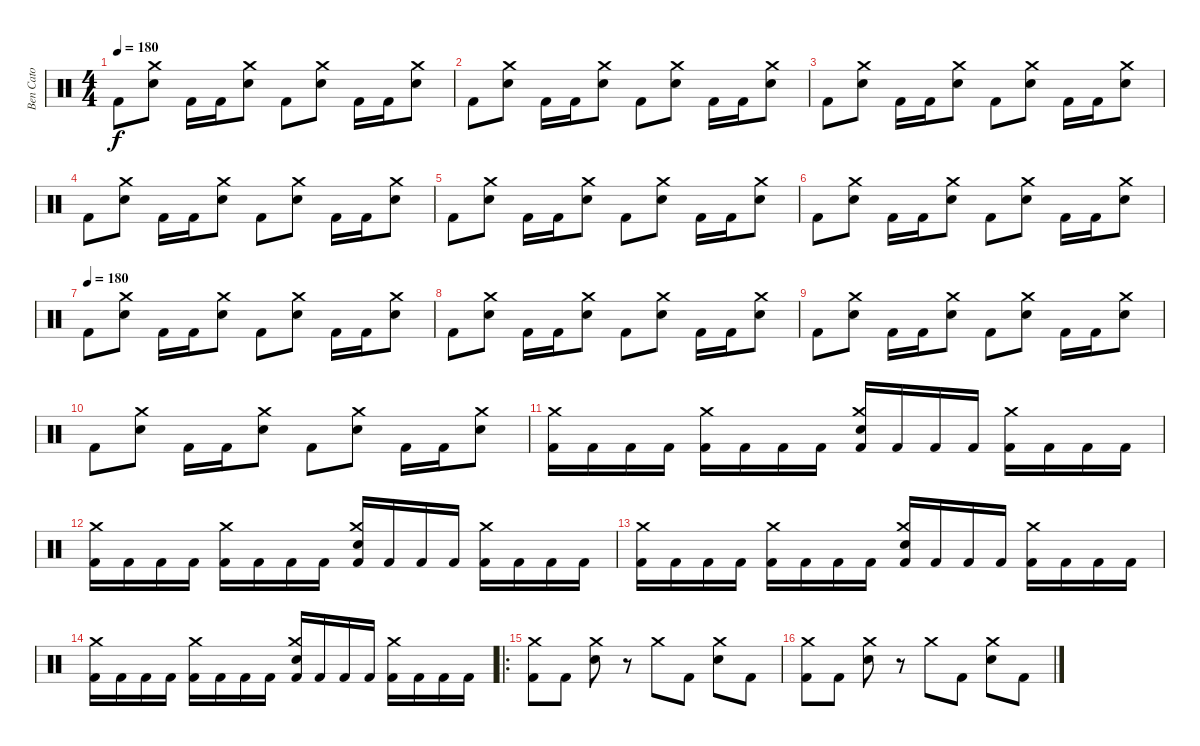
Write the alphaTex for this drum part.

\track ("Ben Cato" "Ben Cato") {instrument percussion}
\staff {score}
\articulation defaults
\ts (4 4)
\tempo 180
\clef neutral
\ks c "Kick (hit) 2".8{dy f}
("Crash medium (hit)" "Electric Snare (hit)").8 "Kick (hit) 2".16 "Kick (hit) 2".16 ("Crash medium (hit)" "Electric Snare (hit)").8 "Kick (hit) 2".8 ("Crash medium (hit)" "Electric Snare (hit)").8 "Kick (hit) 2".16 "Kick (hit) 2".16 ("Crash medium (hit)" "Electric Snare (hit)").8 |
"Kick (hit) 2".8 ("Crash medium (hit)" "Electric Snare (hit)").8 "Kick (hit) 2".16 "Kick (hit) 2".16 ("Crash medium (hit)" "Electric Snare (hit)").8 "Kick (hit) 2".8 ("Crash medium (hit)" "Electric Snare (hit)").8 "Kick (hit) 2".16 "Kick (hit) 2".16 ("Crash medium (hit)" "Electric Snare (hit)").8 |
"Kick (hit) 2".8 ("Crash medium (hit)" "Electric Snare (hit)").8 "Kick (hit) 2".16 "Kick (hit) 2".16 ("Crash medium (hit)" "Electric Snare (hit)").8 "Kick (hit) 2".8 ("Crash medium (hit)" "Electric Snare (hit)").8 "Kick (hit) 2".16 "Kick (hit) 2".16 ("Crash medium (hit)" "Electric Snare (hit)").8 |
"Kick (hit) 2".8 ("Crash medium (hit)" "Electric Snare (hit)").8 "Kick (hit) 2".16 "Kick (hit) 2".16 ("Crash medium (hit)" "Electric Snare (hit)").8 "Kick (hit) 2".8 ("Crash medium (hit)" "Electric Snare (hit)").8 "Kick (hit) 2".16 "Kick (hit) 2".16 ("Crash medium (hit)" "Electric Snare (hit)").8 |
"Kick (hit) 2".8 ("Crash medium (hit)" "Electric Snare (hit)").8 "Kick (hit) 2".16 "Kick (hit) 2".16 ("Crash medium (hit)" "Electric Snare (hit)").8 "Kick (hit) 2".8 ("Crash medium (hit)" "Electric Snare (hit)").8 "Kick (hit) 2".16 "Kick (hit) 2".16 ("Crash medium (hit)" "Electric Snare (hit)").8 |
"Kick (hit) 2".8 ("Crash medium (hit)" "Electric Snare (hit)").8 "Kick (hit) 2".16 "Kick (hit) 2".16 ("Crash medium (hit)" "Electric Snare (hit)").8 "Kick (hit) 2".8 ("Crash medium (hit)" "Electric Snare (hit)").8 "Kick (hit) 2".16 "Kick (hit) 2".16 ("Crash medium (hit)" "Electric Snare (hit)").8 |
\tempo (180)
"Kick (hit) 2".8 ("Crash medium (hit)" "Electric Snare (hit)").8 "Kick (hit) 2".16 "Kick (hit) 2".16 ("Crash medium (hit)" "Electric Snare (hit)").8 "Kick (hit) 2".8 ("Crash medium (hit)" "Electric Snare (hit)").8 "Kick (hit) 2".16 "Kick (hit) 2".16 ("Crash medium (hit)" "Electric Snare (hit)").8 |
"Kick (hit) 2".8 ("Crash medium (hit)" "Electric Snare (hit)").8 "Kick (hit) 2".16 "Kick (hit) 2".16 ("Crash medium (hit)" "Electric Snare (hit)").8 "Kick (hit) 2".8 ("Crash medium (hit)" "Electric Snare (hit)").8 "Kick (hit) 2".16 "Kick (hit) 2".16 ("Crash medium (hit)" "Electric Snare (hit)").8 |
"Kick (hit) 2".8 ("Crash medium (hit)" "Electric Snare (hit)").8 "Kick (hit) 2".16 "Kick (hit) 2".16 ("Crash medium (hit)" "Electric Snare (hit)").8 "Kick (hit) 2".8 ("Crash medium (hit)" "Electric Snare (hit)").8 "Kick (hit) 2".16 "Kick (hit) 2".16 ("Crash medium (hit)" "Electric Snare (hit)").8 |
"Kick (hit) 2".8 ("Crash medium (hit)" "Electric Snare (hit)").8 "Kick (hit) 2".16 "Kick (hit) 2".16 ("Crash medium (hit)" "Electric Snare (hit)").8 "Kick (hit) 2".8 ("Crash medium (hit)" "Electric Snare (hit)").8 "Kick (hit) 2".16 "Kick (hit) 2".16 ("Crash medium (hit)" "Electric Snare (hit)").8 |
("Crash medium (hit)" "Kick (hit) 2").16 "Kick (hit) 2".16 "Kick (hit) 2".16 "Kick (hit) 2".16 ("Crash medium (hit)" "Kick (hit) 2").16 "Kick (hit) 2".16 "Kick (hit) 2".16 "Kick (hit) 2".16 ("Crash medium (hit)" "Electric Snare (hit)" "Kick (hit) 2").16 "Kick (hit) 2".16 "Kick (hit) 2".16 "Kick (hit) 2".16 ("Crash medium (hit)" "Kick (hit) 2").16 "Kick (hit) 2".16 "Kick (hit) 2".16 "Kick (hit) 2".16 |
("Crash medium (hit)" "Kick (hit) 2").16 "Kick (hit) 2".16 "Kick (hit) 2".16 "Kick (hit) 2".16 ("Crash medium (hit)" "Kick (hit) 2").16 "Kick (hit) 2".16 "Kick (hit) 2".16 "Kick (hit) 2".16 ("Crash medium (hit)" "Electric Snare (hit)" "Kick (hit) 2").16 "Kick (hit) 2".16 "Kick (hit) 2".16 "Kick (hit) 2".16 ("Crash medium (hit)" "Kick (hit) 2").16 "Kick (hit) 2".16 "Kick (hit) 2".16 "Kick (hit) 2".16 |
("Crash medium (hit)" "Kick (hit) 2").16 "Kick (hit) 2".16 "Kick (hit) 2".16 "Kick (hit) 2".16 ("Crash medium (hit)" "Kick (hit) 2").16 "Kick (hit) 2".16 "Kick (hit) 2".16 "Kick (hit) 2".16 ("Crash medium (hit)" "Electric Snare (hit)" "Kick (hit) 2").16 "Kick (hit) 2".16 "Kick (hit) 2".16 "Kick (hit) 2".16 ("Crash medium (hit)" "Kick (hit) 2").16 "Kick (hit) 2".16 "Kick (hit) 2".16 "Kick (hit) 2".16 |
("Crash medium (hit)" "Kick (hit) 2").16 "Kick (hit) 2".16 "Kick (hit) 2".16 "Kick (hit) 2".16 ("Crash medium (hit)" "Kick (hit) 2").16 "Kick (hit) 2".16 "Kick (hit) 2".16 "Kick (hit) 2".16 ("Crash medium (hit)" "Electric Snare (hit)" "Kick (hit) 2").16 "Kick (hit) 2".16 "Kick (hit) 2".16 "Kick (hit) 2".16 ("Crash medium (hit)" "Kick (hit) 2").16 "Kick (hit) 2".16 "Kick (hit) 2".16 "Kick (hit) 2".16 |
\ro
("Crash medium (hit)" "Kick (hit) 2").8 "Kick (hit) 2".8 ("Crash medium (hit)" "Electric Snare (hit)").8 r.8 "Crash medium (hit)".8 "Kick (hit) 2".8 ("Crash medium (hit)" "Electric Snare (hit)").8 "Kick (hit) 2".8 |
("Crash medium (hit)" "Kick (hit) 2").8 "Kick (hit) 2".8 ("Crash medium (hit)" "Electric Snare (hit)").8 r.8 "Crash medium (hit)".8 "Kick (hit) 2".8 ("Crash medium (hit)" "Electric Snare (hit)").8 "Kick (hit) 2".8
